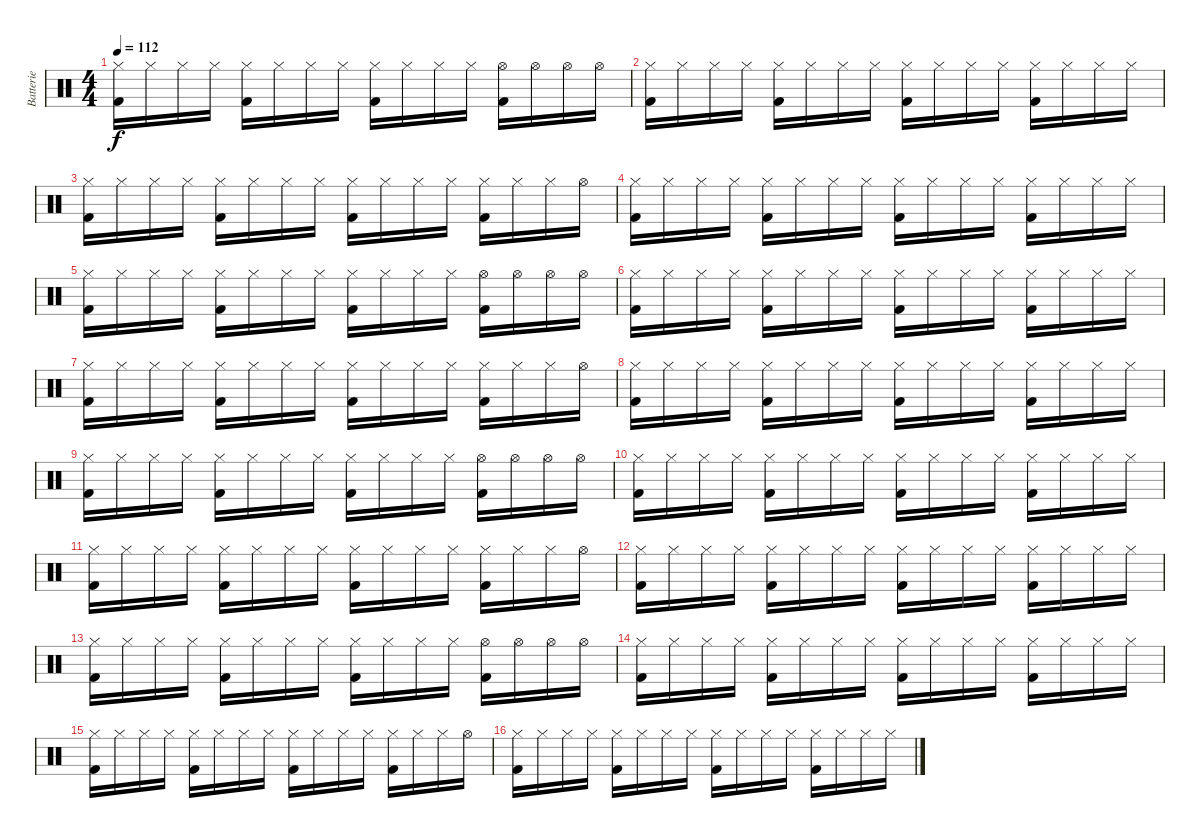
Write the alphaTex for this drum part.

\track ("Batterie" "Batterie") {instrument percussion}
\staff {score}
\articulation defaults
\ts (4 4)
\tempo 112
\clef neutral
\ks c
("Kick (hit) 2" "Hi-Hat (closed)").16{dy f} "Hi-Hat (closed)".16 "Hi-Hat (closed)".16 "Hi-Hat (closed)".16 ("Kick (hit) 2" "Hi-Hat (closed)").16 "Hi-Hat (closed)".16 "Hi-Hat (closed)".16 "Hi-Hat (closed)".16 ("Kick (hit) 2" "Hi-Hat (closed)").16 "Hi-Hat (closed)".16 "Hi-Hat (closed)".16 "Hi-Hat (closed)".16 ("Kick (hit) 2" "Hi-Hat (open)").16 "Hi-Hat (open)".16 "Hi-Hat (open)".16 "Hi-Hat (open)".16 |
("Kick (hit) 2" "Hi-Hat (closed)").16 "Hi-Hat (closed)".16 "Hi-Hat (closed)".16 "Hi-Hat (closed)".16 ("Kick (hit) 2" "Hi-Hat (closed)").16 "Hi-Hat (closed)".16 "Hi-Hat (closed)".16 "Hi-Hat (closed)".16 ("Kick (hit) 2" "Hi-Hat (closed)").16 "Hi-Hat (closed)".16 "Hi-Hat (closed)".16 "Hi-Hat (closed)".16 ("Kick (hit) 2" "Hi-Hat (closed)").16 "Hi-Hat (closed)".16 "Hi-Hat (closed)".16 "Hi-Hat (closed)".16 |
("Kick (hit) 2" "Hi-Hat (closed)").16 "Hi-Hat (closed)".16 "Hi-Hat (closed)".16 "Hi-Hat (closed)".16 ("Kick (hit) 2" "Hi-Hat (closed)").16 "Hi-Hat (closed)".16 "Hi-Hat (closed)".16 "Hi-Hat (closed)".16 ("Kick (hit) 2" "Hi-Hat (closed)").16 "Hi-Hat (closed)".16 "Hi-Hat (closed)".16 "Hi-Hat (closed)".16 ("Kick (hit) 2" "Hi-Hat (closed)").16 "Hi-Hat (closed)".16 "Hi-Hat (closed)".16 "Hi-Hat (open)".16 |
("Kick (hit) 2" "Hi-Hat (closed)").16 "Hi-Hat (closed)".16 "Hi-Hat (closed)".16 "Hi-Hat (closed)".16 ("Kick (hit) 2" "Hi-Hat (closed)").16 "Hi-Hat (closed)".16 "Hi-Hat (closed)".16 "Hi-Hat (closed)".16 ("Kick (hit) 2" "Hi-Hat (closed)").16 "Hi-Hat (closed)".16 "Hi-Hat (closed)".16 "Hi-Hat (closed)".16 ("Kick (hit) 2" "Hi-Hat (closed)").16 "Hi-Hat (closed)".16 "Hi-Hat (closed)".16 "Hi-Hat (closed)".16 |
("Kick (hit) 2" "Hi-Hat (closed)").16 "Hi-Hat (closed)".16 "Hi-Hat (closed)".16 "Hi-Hat (closed)".16 ("Kick (hit) 2" "Hi-Hat (closed)").16 "Hi-Hat (closed)".16 "Hi-Hat (closed)".16 "Hi-Hat (closed)".16 ("Kick (hit) 2" "Hi-Hat (closed)").16 "Hi-Hat (closed)".16 "Hi-Hat (closed)".16 "Hi-Hat (closed)".16 ("Kick (hit) 2" "Hi-Hat (open)").16 "Hi-Hat (open)".16 "Hi-Hat (open)".16 "Hi-Hat (open)".16 |
("Kick (hit) 2" "Hi-Hat (closed)").16 "Hi-Hat (closed)".16 "Hi-Hat (closed)".16 "Hi-Hat (closed)".16 ("Kick (hit) 2" "Hi-Hat (closed)").16 "Hi-Hat (closed)".16 "Hi-Hat (closed)".16 "Hi-Hat (closed)".16 ("Kick (hit) 2" "Hi-Hat (closed)").16 "Hi-Hat (closed)".16 "Hi-Hat (closed)".16 "Hi-Hat (closed)".16 ("Kick (hit) 2" "Hi-Hat (closed)").16 "Hi-Hat (closed)".16 "Hi-Hat (closed)".16 "Hi-Hat (closed)".16 |
("Kick (hit) 2" "Hi-Hat (closed)").16 "Hi-Hat (closed)".16 "Hi-Hat (closed)".16 "Hi-Hat (closed)".16 ("Kick (hit) 2" "Hi-Hat (closed)").16 "Hi-Hat (closed)".16 "Hi-Hat (closed)".16 "Hi-Hat (closed)".16 ("Kick (hit) 2" "Hi-Hat (closed)").16 "Hi-Hat (closed)".16 "Hi-Hat (closed)".16 "Hi-Hat (closed)".16 ("Kick (hit) 2" "Hi-Hat (closed)").16 "Hi-Hat (closed)".16 "Hi-Hat (closed)".16 "Hi-Hat (open)".16 |
("Kick (hit) 2" "Hi-Hat (closed)").16 "Hi-Hat (closed)".16 "Hi-Hat (closed)".16 "Hi-Hat (closed)".16 ("Kick (hit) 2" "Hi-Hat (closed)").16 "Hi-Hat (closed)".16 "Hi-Hat (closed)".16 "Hi-Hat (closed)".16 ("Kick (hit) 2" "Hi-Hat (closed)").16 "Hi-Hat (closed)".16 "Hi-Hat (closed)".16 "Hi-Hat (closed)".16 ("Kick (hit) 2" "Hi-Hat (closed)").16 "Hi-Hat (closed)".16 "Hi-Hat (closed)".16 "Hi-Hat (closed)".16 |
("Kick (hit) 2" "Hi-Hat (closed)").16 "Hi-Hat (closed)".16 "Hi-Hat (closed)".16 "Hi-Hat (closed)".16 ("Kick (hit) 2" "Hi-Hat (closed)").16 "Hi-Hat (closed)".16 "Hi-Hat (closed)".16 "Hi-Hat (closed)".16 ("Kick (hit) 2" "Hi-Hat (closed)").16 "Hi-Hat (closed)".16 "Hi-Hat (closed)".16 "Hi-Hat (closed)".16 ("Kick (hit) 2" "Hi-Hat (open)").16 "Hi-Hat (open)".16 "Hi-Hat (open)".16 "Hi-Hat (open)".16 |
("Kick (hit) 2" "Hi-Hat (closed)").16 "Hi-Hat (closed)".16 "Hi-Hat (closed)".16 "Hi-Hat (closed)".16 ("Kick (hit) 2" "Hi-Hat (closed)").16 "Hi-Hat (closed)".16 "Hi-Hat (closed)".16 "Hi-Hat (closed)".16 ("Kick (hit) 2" "Hi-Hat (closed)").16 "Hi-Hat (closed)".16 "Hi-Hat (closed)".16 "Hi-Hat (closed)".16 ("Kick (hit) 2" "Hi-Hat (closed)").16 "Hi-Hat (closed)".16 "Hi-Hat (closed)".16 "Hi-Hat (closed)".16 |
("Kick (hit) 2" "Hi-Hat (closed)").16 "Hi-Hat (closed)".16 "Hi-Hat (closed)".16 "Hi-Hat (closed)".16 ("Kick (hit) 2" "Hi-Hat (closed)").16 "Hi-Hat (closed)".16 "Hi-Hat (closed)".16 "Hi-Hat (closed)".16 ("Kick (hit) 2" "Hi-Hat (closed)").16 "Hi-Hat (closed)".16 "Hi-Hat (closed)".16 "Hi-Hat (closed)".16 ("Kick (hit) 2" "Hi-Hat (closed)").16 "Hi-Hat (closed)".16 "Hi-Hat (closed)".16 "Hi-Hat (open)".16 |
("Kick (hit) 2" "Hi-Hat (closed)").16 "Hi-Hat (closed)".16 "Hi-Hat (closed)".16 "Hi-Hat (closed)".16 ("Kick (hit) 2" "Hi-Hat (closed)").16 "Hi-Hat (closed)".16 "Hi-Hat (closed)".16 "Hi-Hat (closed)".16 ("Kick (hit) 2" "Hi-Hat (closed)").16 "Hi-Hat (closed)".16 "Hi-Hat (closed)".16 "Hi-Hat (closed)".16 ("Kick (hit) 2" "Hi-Hat (closed)").16 "Hi-Hat (closed)".16 "Hi-Hat (closed)".16 "Hi-Hat (closed)".16 |
("Kick (hit) 2" "Hi-Hat (closed)").16 "Hi-Hat (closed)".16 "Hi-Hat (closed)".16 "Hi-Hat (closed)".16 ("Kick (hit) 2" "Hi-Hat (closed)").16 "Hi-Hat (closed)".16 "Hi-Hat (closed)".16 "Hi-Hat (closed)".16 ("Kick (hit) 2" "Hi-Hat (closed)").16 "Hi-Hat (closed)".16 "Hi-Hat (closed)".16 "Hi-Hat (closed)".16 ("Kick (hit) 2" "Hi-Hat (open)").16 "Hi-Hat (open)".16 "Hi-Hat (open)".16 "Hi-Hat (open)".16 |
("Kick (hit) 2" "Hi-Hat (closed)").16 "Hi-Hat (closed)".16 "Hi-Hat (closed)".16 "Hi-Hat (closed)".16 ("Kick (hit) 2" "Hi-Hat (closed)").16 "Hi-Hat (closed)".16 "Hi-Hat (closed)".16 "Hi-Hat (closed)".16 ("Kick (hit) 2" "Hi-Hat (closed)").16 "Hi-Hat (closed)".16 "Hi-Hat (closed)".16 "Hi-Hat (closed)".16 ("Kick (hit) 2" "Hi-Hat (closed)").16 "Hi-Hat (closed)".16 "Hi-Hat (closed)".16 "Hi-Hat (closed)".16 |
("Kick (hit) 2" "Hi-Hat (closed)").16 "Hi-Hat (closed)".16 "Hi-Hat (closed)".16 "Hi-Hat (closed)".16 ("Kick (hit) 2" "Hi-Hat (closed)").16 "Hi-Hat (closed)".16 "Hi-Hat (closed)".16 "Hi-Hat (closed)".16 ("Kick (hit) 2" "Hi-Hat (closed)").16 "Hi-Hat (closed)".16 "Hi-Hat (closed)".16 "Hi-Hat (closed)".16 ("Kick (hit) 2" "Hi-Hat (closed)").16 "Hi-Hat (closed)".16 "Hi-Hat (closed)".16 "Hi-Hat (open)".16 |
("Kick (hit) 2" "Hi-Hat (closed)").16 "Hi-Hat (closed)".16 "Hi-Hat (closed)".16 "Hi-Hat (closed)".16 ("Kick (hit) 2" "Hi-Hat (closed)").16 "Hi-Hat (closed)".16 "Hi-Hat (closed)".16 "Hi-Hat (closed)".16 ("Kick (hit) 2" "Hi-Hat (closed)").16 "Hi-Hat (closed)".16 "Hi-Hat (closed)".16 "Hi-Hat (closed)".16 ("Kick (hit) 2" "Hi-Hat (closed)").16 "Hi-Hat (closed)".16 "Hi-Hat (closed)".16 "Hi-Hat (closed)".16
